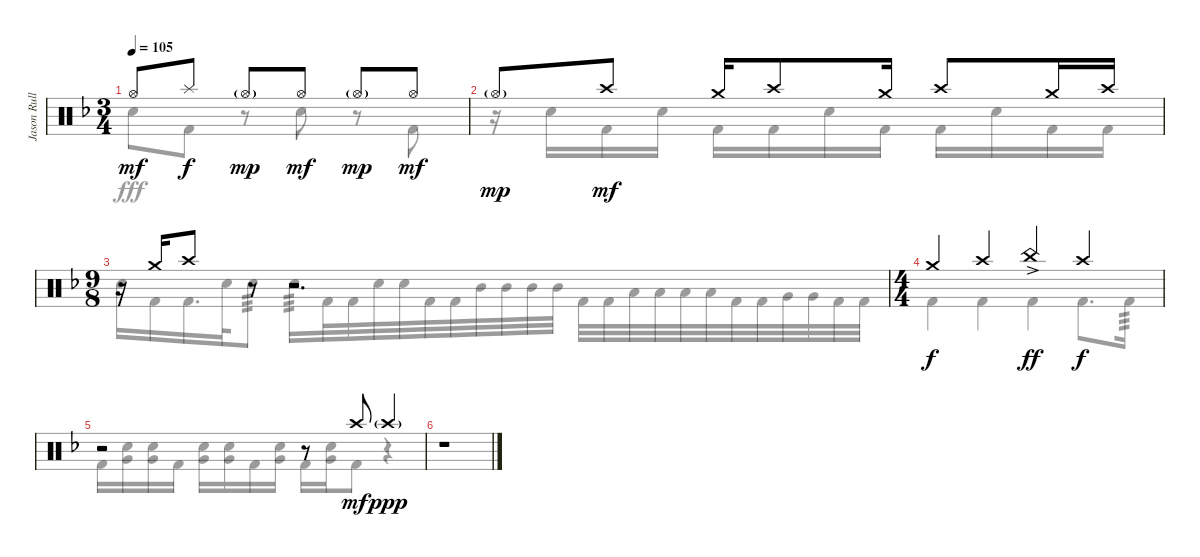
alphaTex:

\track ("Jason Rullo Drums" "Jason Rull") {instrument percussion}
\staff {score}
\articulation defaults
\voice
\ts (3 4)
\tempo 105
\clef neutral
\ks dminor "Hi-Hat (open)".8{dy mf} "Splash (hit)".8{dy f} "Hi-Hat (open)"{g}.8{dy mp} "Hi-Hat (open)".8{dy mf} "Hi-Hat (open)"{g}.8{dy mp} "Hi-Hat (open)".8{dy mf}
|
"Hi-Hat (open)"{g}.8{dy mp} "Crash high (hit)".8{dy mf} "Crash medium (hit)".16 "Crash high (hit)".8 "Crash medium (hit)".16 "Crash high (hit)".8 "Crash medium (hit)".16 "Crash high (hit)".16 |
\ts (9 8)
r.16 "Crash medium (hit)".16 "Crash high (hit)".8 r.8 r.2{d} |
\ts (4 4)
"Crash medium (hit)".4{dy f} "Crash high (hit)".4 "China (hit)"{ac}.4{dy ff} "Crash high (hit)".4{dy f} |
r.2 r.8 "Crash high (hit)".8{dy mf} "Crash high (hit)"{g}.4{dy ppp} |
r.1
\voice
\clef neutral
\ottava regular
\simile none
\ks dminor "Electric Snare (hit)".8{dy fff} "Kick (hit) 2".8
r.8 "Electric Snare (hit)".8 r.8 "Kick (hit) 2".8 |
r.16 "Electric Snare (hit)".16 "Kick (hit) 2".16 "Electric Snare (hit)".16 "Kick (hit) 2".16 "Kick (hit) 2".16 "Electric Snare (hit)".16 "Kick (hit) 2".16 "Kick (hit) 2".16 "Electric Snare (hit)".16 "Kick (hit) 2".16 "Kick (hit) 2".16 |
"Electric Snare (hit)".16 "Kick (hit) 2".16 "Kick (hit) 2".16{d} "Electric Snare (hit)".32 "Electric Snare (hit)".8{tp 3} "Electric Snare (hit)".16{tp 3} "Kick (hit) 2".32 "Kick (hit) 2".32 "Electric Snare (hit)".32 "Electric Snare (hit)".32 "Kick (hit) 2".32 "Kick (hit) 2".32 "Mid Tom (hit)".32 "Mid Tom (hit)".32 "Mid Tom (hit)".32 "Mid Tom (hit)".32 "Kick (hit) 2".32 "Kick (hit) 2".32 "Low Tom (hit)".32 "Low Tom (hit)".32 "Low Tom (hit)".32 "Low Tom (hit)".32 "Kick (hit) 2".32 "Kick (hit) 2".32 "Very Low Tom (hit)".32 "Very Low Tom (hit)".32 "Kick (hit) 2".32 "Kick (hit) 2".32 |
"Kick (hit) 2".4 "Kick (hit) 2".4 "Kick (hit) 2".4 "Kick (hit) 2".8{d} "Kick (hit) 2".16{tp 3} |
"Kick (hit) 2".16 ("Electric Snare (hit)" "Very Low Tom (hit)").16 ("Electric Snare (hit)" "Very Low Tom (hit)").16 "Kick (hit) 2".16 ("Electric Snare (hit)" "Very Low Tom (hit)").16 ("Electric Snare (hit)" "Very Low Tom (hit)").16 "Kick (hit) 2".16 ("Electric Snare (hit)" "Very Low Tom (hit)").16 "Kick (hit) 2".16 ("Electric Snare (hit)" "Very Low Tom (hit)").16 "Kick (hit) 2".8 r.4 |
